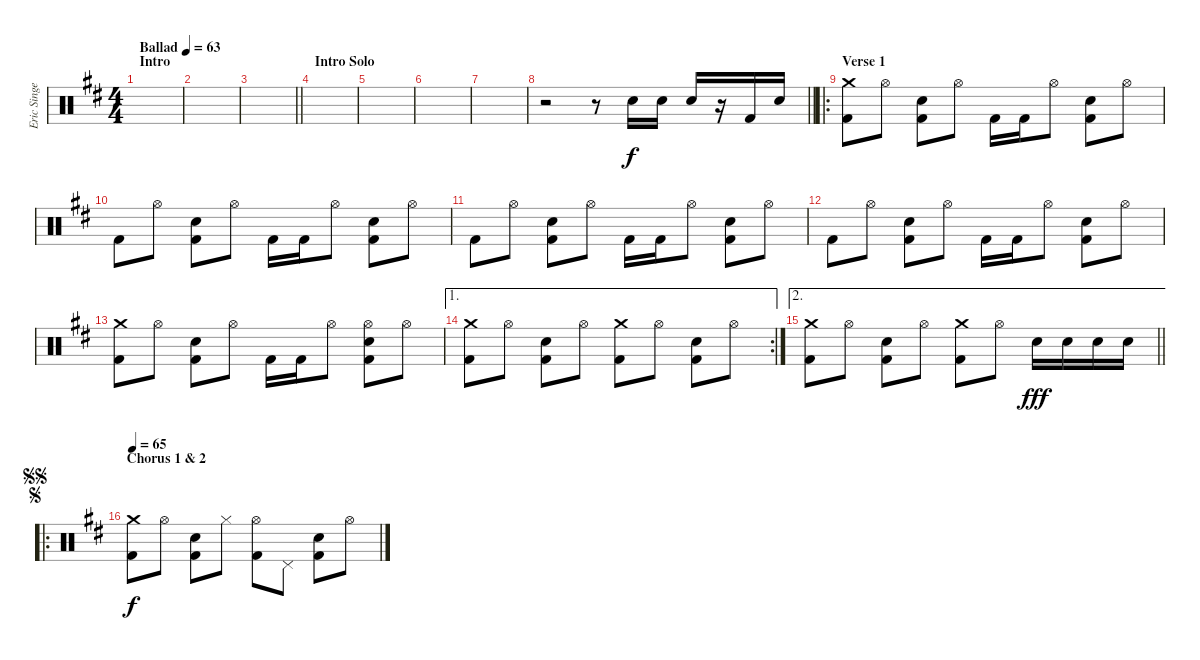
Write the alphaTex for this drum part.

\track ("Eric Singer" "Eric Singe") {instrument percussion}
\staff {score}
\articulation defaults
\ts (4 4)
\section ("" "Intro")
\tempo (63 "Ballad")
\clef neutral
\ks d
|
|
\barLineRight lightlight
|
\section ("" "Intro Solo")
|
|
|
|
\barLineRight lightlight
r.2 r.8 "Snare (hit) 2".16 "Snare (hit) 2".16 "Snare (hit) 2".16 r.16 "Kick (hit) 2".16 "Snare (hit) 2".16 |
\ro
\section ("" "Verse 1")
("Crash medium (hit)" "Kick (hit) 2").8 "Hi-Hat (open)".8 ("Snare (hit) 2" "Kick (hit) 2").8 "Hi-Hat (open)".8 "Kick (hit) 2".16 "Kick (hit) 2".16 "Hi-Hat (open)".8 ("Snare (hit) 2" "Kick (hit) 2").8 "Hi-Hat (open)".8 |
"Kick (hit) 2".8 "Hi-Hat (open)".8 ("Snare (hit) 2" "Kick (hit) 2").8 "Hi-Hat (open)".8 "Kick (hit) 2".16 "Kick (hit) 2".16 "Hi-Hat (open)".8 ("Snare (hit) 2" "Kick (hit) 2").8 "Hi-Hat (open)".8 |
"Kick (hit) 2".8 "Hi-Hat (open)".8 ("Snare (hit) 2" "Kick (hit) 2").8 "Hi-Hat (open)".8 "Kick (hit) 2".16 "Kick (hit) 2".16 "Hi-Hat (open)".8 ("Snare (hit) 2" "Kick (hit) 2").8 "Hi-Hat (open)".8 |
"Kick (hit) 2".8 "Hi-Hat (open)".8 ("Snare (hit) 2" "Kick (hit) 2").8 "Hi-Hat (open)".8 "Kick (hit) 2".16 "Kick (hit) 2".16 "Hi-Hat (open)".8 ("Snare (hit) 2" "Kick (hit) 2").8 "Hi-Hat (open)".8 |
("Crash medium (hit)" "Kick (hit) 2").8 "Hi-Hat (open)".8 ("Snare (hit) 2" "Kick (hit) 2").8 "Hi-Hat (open)".8 "Kick (hit) 2".16 "Kick (hit) 2".16 "Hi-Hat (open)".8 ("Hi-Hat (open)" "Snare (hit) 2" "Kick (hit) 2").8 "Hi-Hat (open)".8 |
\ae 1
\rc 2
("Crash medium (hit)" "Kick (hit) 2").8 "Hi-Hat (open)".8 ("Snare (hit) 2" "Kick (hit) 2").8 "Hi-Hat (open)".8 ("Crash medium (hit)" "Kick (hit) 2").8 "Hi-Hat (open)".8 ("Snare (hit) 2" "Kick (hit) 2").8 "Hi-Hat (open)".8 |
\ae 2
\barLineRight lightlight
("Crash medium (hit)" "Kick (hit) 2").8 "Hi-Hat (open)".8 ("Snare (hit) 2" "Kick (hit) 2").8 "Hi-Hat (open)".8 ("Crash medium (hit)" "Kick (hit) 2").8 "Hi-Hat (open)".8 "Snare (hit) 2".16{dy fff} "Snare (hit) 2".16 "Snare (hit) 2".16 "Snare (hit) 2".16 |
\ro
\section ("" "Chorus 1 & 2")
\jump segno
\jump segnosegno
\tempo 65
("Crash medium (hit)" "Kick (hit) 2").8{dy f} "Hi-Hat (open)".8 ("Snare (hit) 2" "Kick (hit) 2").8 "Hi-Hat (closed)".8 ("Hi-Hat (open)" "Kick (hit) 2").8 "Pedal Hi-Hat (hit)".8 ("Snare (hit) 2" "Kick (hit) 2").8 "Hi-Hat (open)".8
